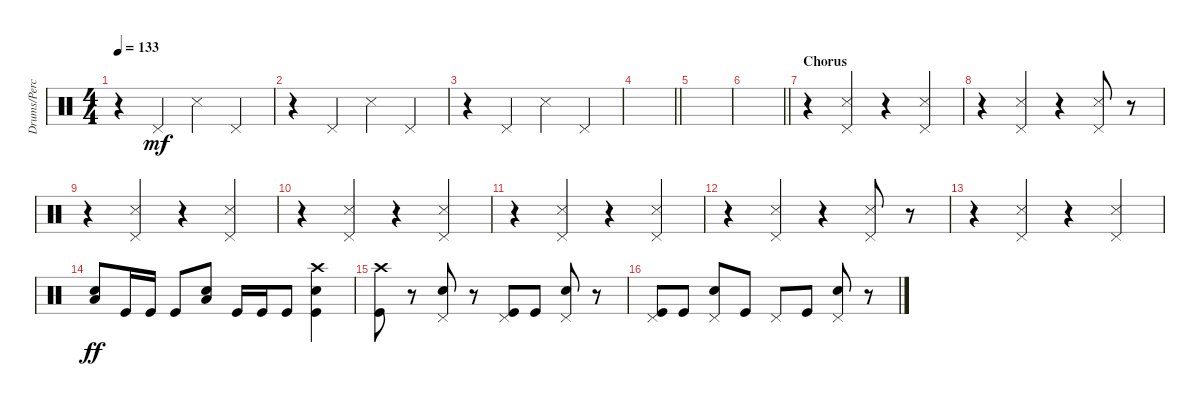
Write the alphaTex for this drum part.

\track ("Drums/Percussion" "Drums/Perc") {instrument percussion}
\staff {score}
\articulation defaults
\ts (4 4)
\tempo 133
\clef neutral
\ks c
r.4{dy mf} "Pedal Hi-Hat (hit)".4 "Snare (side stick) 3".4 "Pedal Hi-Hat (hit)".4 |
r.4 "Pedal Hi-Hat (hit)".4 "Snare (side stick) 3".4 "Pedal Hi-Hat (hit)".4 |
r.4 "Pedal Hi-Hat (hit)".4 "Snare (side stick) 3".4 "Pedal Hi-Hat (hit)".4 |
\barLineRight lightlight
|
|
\barLineRight lightlight
|
\section ("" "Chorus")
r.4 ("Pedal Hi-Hat (hit)" "Snare (side stick) 3").4 r.4 ("Pedal Hi-Hat (hit)" "Snare (side stick) 3").4 |
r.4 ("Pedal Hi-Hat (hit)" "Snare (side stick) 3").4 r.4 ("Pedal Hi-Hat (hit)" "Snare (side stick) 3").8 r.8 |
r.4 ("Pedal Hi-Hat (hit)" "Snare (side stick) 3").4 r.4 ("Pedal Hi-Hat (hit)" "Snare (side stick) 3").4 |
r.4 ("Pedal Hi-Hat (hit)" "Snare (side stick) 3").4 r.4 ("Pedal Hi-Hat (hit)" "Snare (side stick) 3").4 |
r.4 ("Pedal Hi-Hat (hit)" "Snare (side stick) 3").4 r.4 ("Pedal Hi-Hat (hit)" "Snare (side stick) 3").4 |
r.4 ("Pedal Hi-Hat (hit)" "Snare (side stick) 3").4 r.4 ("Pedal Hi-Hat (hit)" "Snare (side stick) 3").8 r.8 |
r.4 ("Pedal Hi-Hat (hit)" "Snare (side stick) 3").4 r.4 ("Pedal Hi-Hat (hit)" "Snare (side stick) 3").4 |
("Low Tom (hit)" "Snare (hit) 2").8{dy ff} "Kick (hit)".16 "Kick (hit)".16 "Kick (hit)".8 ("Low Tom (hit)" "Snare (hit) 2").8 "Kick (hit)".16 "Kick (hit)".16 "Kick (hit)".8 ("Crash high (hit)" "Kick (hit)" "Snare (hit) 2").4 |
("Crash high (hit)" "Kick (hit)").8 r.8 ("Pedal Hi-Hat (hit)" "Snare (hit) 2").8 r.8 ("Pedal Hi-Hat (hit)" "Kick (hit)").8 "Kick (hit)".8 ("Pedal Hi-Hat (hit)" "Snare (hit) 2").8 r.8 |
("Pedal Hi-Hat (hit)" "Kick (hit)").8 "Kick (hit)".8 ("Pedal Hi-Hat (hit)" "Snare (hit) 2").8 "Kick (hit)".8 "Pedal Hi-Hat (hit)".8 "Kick (hit)".8 ("Pedal Hi-Hat (hit)" "Snare (hit) 2").8 r.8
